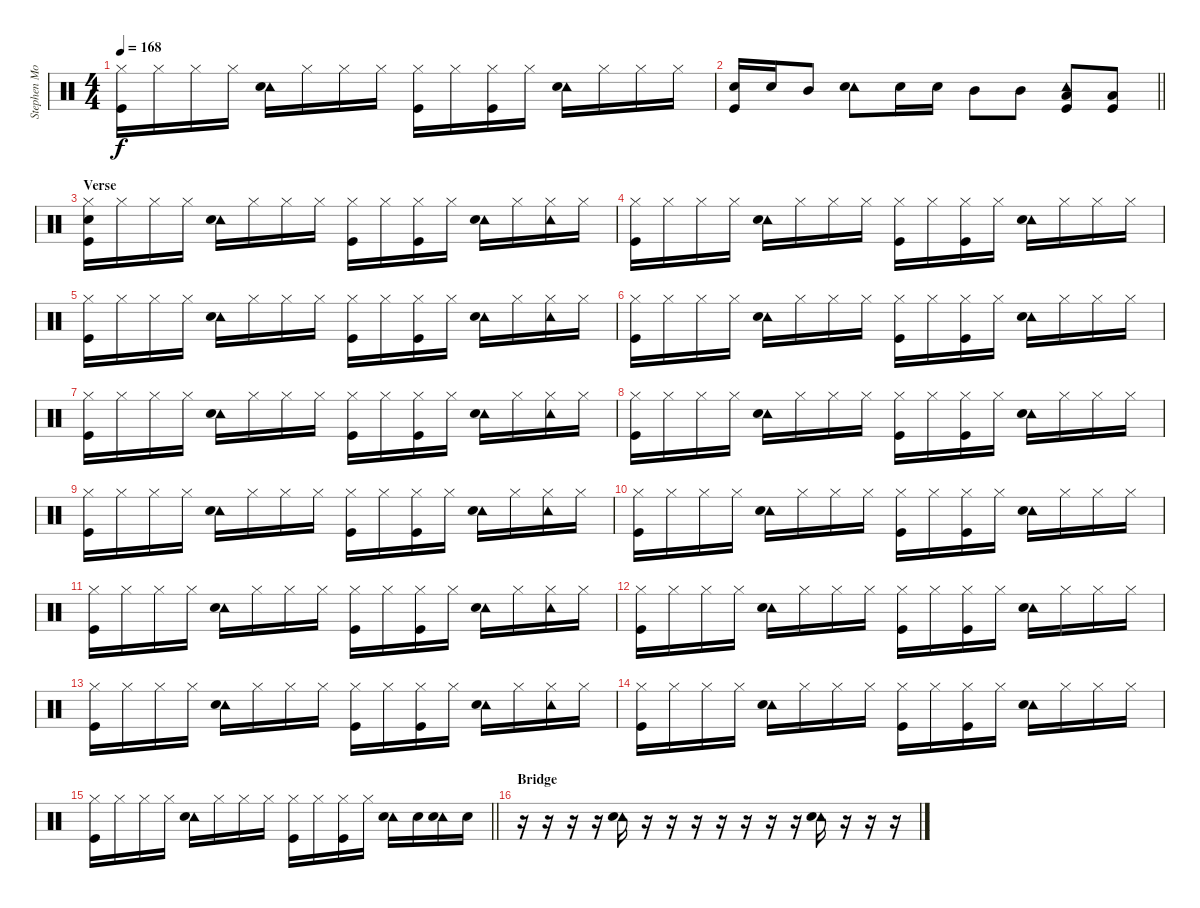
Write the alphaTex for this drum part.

\track ("Stephen Morris - Drums" "Stephen Mo") {instrument percussion}
\staff {score}
\articulation defaults
\ts (4 4)
\tempo 168
\clef neutral
\ks c
("Hi-Hat (closed)" "Kick (hit)").16{dy f} "Hi-Hat (closed)".16 "Hi-Hat (closed)".16 "Hi-Hat (closed)".16 ("Tambourine (hit)" "Snare (hit) 2").16 "Hi-Hat (closed)".16 "Hi-Hat (closed)".16 "Hi-Hat (closed)".16 ("Hi-Hat (closed)" "Kick (hit)").16 "Hi-Hat (closed)".16 ("Hi-Hat (closed)" "Kick (hit)").16 "Hi-Hat (closed)".16 ("Tambourine (hit)" "Snare (hit) 2").16 "Hi-Hat (closed)".16 "Hi-Hat (closed)".16 "Hi-Hat (closed)".16 |
\barLineRight lightlight
("Snare (hit) 2" "Kick (hit)").16 "Snare (hit) 2".16 "Mid Tom (hit)".8 ("Tambourine (hit)" "Snare (hit) 2").8 "Snare (hit) 2".16 "Snare (hit) 2".16 "Mid Tom (hit)".8 "Mid Tom (hit)".8 ("Tambourine (hit)" "Low Tom (hit)" "Kick (hit)").8 ("Low Floor Tom (hit)" "Kick (hit)").8 |
\section ("" "Verse")
("Hi-Hat (closed)" "Snare (hit) 2" "Kick (hit)").16 "Hi-Hat (closed)".16 "Hi-Hat (closed)".16 "Hi-Hat (closed)".16 ("Tambourine (hit)" "Snare (hit) 2").16 "Hi-Hat (closed)".16 "Hi-Hat (closed)".16 "Hi-Hat (closed)".16 ("Hi-Hat (closed)" "Kick (hit)").16 "Hi-Hat (closed)".16 ("Hi-Hat (closed)" "Kick (hit)").16 "Hi-Hat (closed)".16 ("Tambourine (hit)" "Snare (hit) 2").16 "Hi-Hat (closed)".16 ("Tambourine (hit)" "Hi-Hat (closed)").16 "Hi-Hat (closed)".16 |
("Hi-Hat (closed)" "Kick (hit)").16 "Hi-Hat (closed)".16 "Hi-Hat (closed)".16 "Hi-Hat (closed)".16 ("Tambourine (hit)" "Snare (hit) 2").16 "Hi-Hat (closed)".16 "Hi-Hat (closed)".16 "Hi-Hat (closed)".16 ("Hi-Hat (closed)" "Kick (hit)").16 "Hi-Hat (closed)".16 ("Hi-Hat (closed)" "Kick (hit)").16 "Hi-Hat (closed)".16 ("Tambourine (hit)" "Snare (hit) 2").16 "Hi-Hat (closed)".16 "Hi-Hat (closed)".16 "Hi-Hat (closed)".16 |
("Hi-Hat (closed)" "Kick (hit)").16 "Hi-Hat (closed)".16 "Hi-Hat (closed)".16 "Hi-Hat (closed)".16 ("Tambourine (hit)" "Snare (hit) 2").16 "Hi-Hat (closed)".16 "Hi-Hat (closed)".16 "Hi-Hat (closed)".16 ("Hi-Hat (closed)" "Kick (hit)").16 "Hi-Hat (closed)".16 ("Hi-Hat (closed)" "Kick (hit)").16 "Hi-Hat (closed)".16 ("Tambourine (hit)" "Snare (hit) 2").16 "Hi-Hat (closed)".16 ("Tambourine (hit)" "Hi-Hat (closed)").16 "Hi-Hat (closed)".16 |
("Hi-Hat (closed)" "Kick (hit)").16 "Hi-Hat (closed)".16 "Hi-Hat (closed)".16 "Hi-Hat (closed)".16 ("Tambourine (hit)" "Snare (hit) 2").16 "Hi-Hat (closed)".16 "Hi-Hat (closed)".16 "Hi-Hat (closed)".16 ("Hi-Hat (closed)" "Kick (hit)").16 "Hi-Hat (closed)".16 ("Hi-Hat (closed)" "Kick (hit)").16 "Hi-Hat (closed)".16 ("Tambourine (hit)" "Snare (hit) 2").16 "Hi-Hat (closed)".16 "Hi-Hat (closed)".16 "Hi-Hat (closed)".16 |
("Hi-Hat (closed)" "Kick (hit)").16 "Hi-Hat (closed)".16 "Hi-Hat (closed)".16 "Hi-Hat (closed)".16 ("Tambourine (hit)" "Snare (hit) 2").16 "Hi-Hat (closed)".16 "Hi-Hat (closed)".16 "Hi-Hat (closed)".16 ("Hi-Hat (closed)" "Kick (hit)").16 "Hi-Hat (closed)".16 ("Hi-Hat (closed)" "Kick (hit)").16 "Hi-Hat (closed)".16 ("Tambourine (hit)" "Snare (hit) 2").16 "Hi-Hat (closed)".16 ("Tambourine (hit)" "Hi-Hat (closed)").16 "Hi-Hat (closed)".16 |
("Hi-Hat (closed)" "Kick (hit)").16 "Hi-Hat (closed)".16 "Hi-Hat (closed)".16 "Hi-Hat (closed)".16 ("Tambourine (hit)" "Snare (hit) 2").16 "Hi-Hat (closed)".16 "Hi-Hat (closed)".16 "Hi-Hat (closed)".16 ("Hi-Hat (closed)" "Kick (hit)").16 "Hi-Hat (closed)".16 ("Hi-Hat (closed)" "Kick (hit)").16 "Hi-Hat (closed)".16 ("Tambourine (hit)" "Snare (hit) 2").16 "Hi-Hat (closed)".16 "Hi-Hat (closed)".16 "Hi-Hat (closed)".16 |
("Hi-Hat (closed)" "Kick (hit)").16 "Hi-Hat (closed)".16 "Hi-Hat (closed)".16 "Hi-Hat (closed)".16 ("Tambourine (hit)" "Snare (hit) 2").16 "Hi-Hat (closed)".16 "Hi-Hat (closed)".16 "Hi-Hat (closed)".16 ("Hi-Hat (closed)" "Kick (hit)").16 "Hi-Hat (closed)".16 ("Hi-Hat (closed)" "Kick (hit)").16 "Hi-Hat (closed)".16 ("Tambourine (hit)" "Snare (hit) 2").16 "Hi-Hat (closed)".16 ("Tambourine (hit)" "Hi-Hat (closed)").16 "Hi-Hat (closed)".16 |
("Hi-Hat (closed)" "Kick (hit)").16 "Hi-Hat (closed)".16 "Hi-Hat (closed)".16 "Hi-Hat (closed)".16 ("Tambourine (hit)" "Snare (hit) 2").16 "Hi-Hat (closed)".16 "Hi-Hat (closed)".16 "Hi-Hat (closed)".16 ("Hi-Hat (closed)" "Kick (hit)").16 "Hi-Hat (closed)".16 ("Hi-Hat (closed)" "Kick (hit)").16 "Hi-Hat (closed)".16 ("Tambourine (hit)" "Snare (hit) 2").16 "Hi-Hat (closed)".16 "Hi-Hat (closed)".16 "Hi-Hat (closed)".16 |
("Hi-Hat (closed)" "Kick (hit)").16 "Hi-Hat (closed)".16 "Hi-Hat (closed)".16 "Hi-Hat (closed)".16 ("Tambourine (hit)" "Snare (hit) 2").16 "Hi-Hat (closed)".16 "Hi-Hat (closed)".16 "Hi-Hat (closed)".16 ("Hi-Hat (closed)" "Kick (hit)").16 "Hi-Hat (closed)".16 ("Hi-Hat (closed)" "Kick (hit)").16 "Hi-Hat (closed)".16 ("Tambourine (hit)" "Snare (hit) 2").16 "Hi-Hat (closed)".16 ("Tambourine (hit)" "Hi-Hat (closed)").16 "Hi-Hat (closed)".16 |
("Hi-Hat (closed)" "Kick (hit)").16 "Hi-Hat (closed)".16 "Hi-Hat (closed)".16 "Hi-Hat (closed)".16 ("Tambourine (hit)" "Snare (hit) 2").16 "Hi-Hat (closed)".16 "Hi-Hat (closed)".16 "Hi-Hat (closed)".16 ("Hi-Hat (closed)" "Kick (hit)").16 "Hi-Hat (closed)".16 ("Hi-Hat (closed)" "Kick (hit)").16 "Hi-Hat (closed)".16 ("Tambourine (hit)" "Snare (hit) 2").16 "Hi-Hat (closed)".16 "Hi-Hat (closed)".16 "Hi-Hat (closed)".16 |
("Hi-Hat (closed)" "Kick (hit)").16 "Hi-Hat (closed)".16 "Hi-Hat (closed)".16 "Hi-Hat (closed)".16 ("Tambourine (hit)" "Snare (hit) 2").16 "Hi-Hat (closed)".16 "Hi-Hat (closed)".16 "Hi-Hat (closed)".16 ("Hi-Hat (closed)" "Kick (hit)").16 "Hi-Hat (closed)".16 ("Hi-Hat (closed)" "Kick (hit)").16 "Hi-Hat (closed)".16 ("Tambourine (hit)" "Snare (hit) 2").16 "Hi-Hat (closed)".16 ("Tambourine (hit)" "Hi-Hat (closed)").16 "Hi-Hat (closed)".16 |
("Hi-Hat (closed)" "Kick (hit)").16 "Hi-Hat (closed)".16 "Hi-Hat (closed)".16 "Hi-Hat (closed)".16 ("Tambourine (hit)" "Snare (hit) 2").16 "Hi-Hat (closed)".16 "Hi-Hat (closed)".16 "Hi-Hat (closed)".16 ("Hi-Hat (closed)" "Kick (hit)").16 "Hi-Hat (closed)".16 ("Hi-Hat (closed)" "Kick (hit)").16 "Hi-Hat (closed)".16 ("Tambourine (hit)" "Snare (hit) 2").16 "Hi-Hat (closed)".16 "Hi-Hat (closed)".16 "Hi-Hat (closed)".16 |
\barLineRight lightlight
("Hi-Hat (closed)" "Kick (hit)").16 "Hi-Hat (closed)".16 "Hi-Hat (closed)".16 "Hi-Hat (closed)".16 ("Tambourine (hit)" "Snare (hit) 2").16 "Hi-Hat (closed)".16 "Hi-Hat (closed)".16 "Hi-Hat (closed)".16 ("Hi-Hat (closed)" "Kick (hit)").16 "Hi-Hat (closed)".16 ("Hi-Hat (closed)" "Kick (hit)").16 "Hi-Hat (closed)".16 ("Tambourine (hit)" "Snare (hit) 2").16 "Snare (hit) 2".16 ("Tambourine (hit)" "Snare (hit) 2").16 "Snare (hit) 2".16 |
\section ("" "Bridge")
r.16 r.16 r.16 r.16 ("Tambourine (hit)" "Snare (hit) 2").16 r.16 r.16 r.16 r.16 r.16 r.16 r.16 ("Tambourine (hit)" "Snare (hit) 2").16 r.16 r.16 r.16
